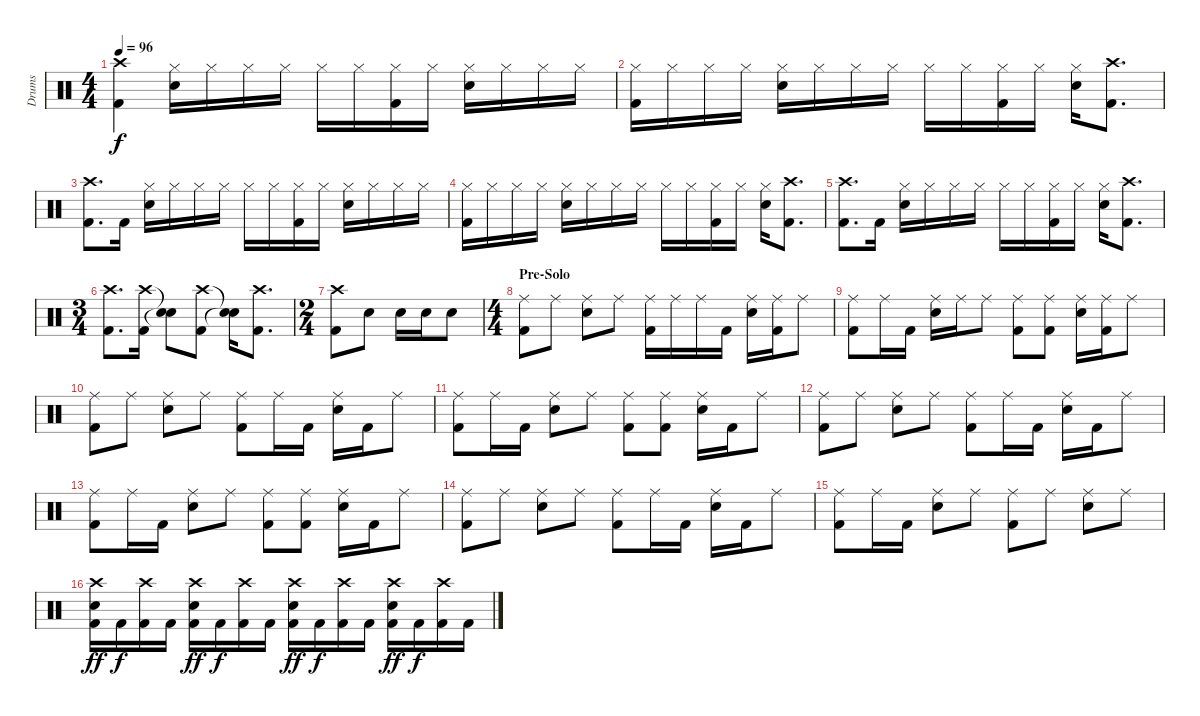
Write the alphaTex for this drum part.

\track ("Drums" "Drums") {instrument percussion}
\staff {score}
\articulation defaults
\ts (4 4)
\tempo 96
\clef neutral
\ks c
("Crash high (hit)" "Kick (hit) 2").4{dy f} ("Hi-Hat (closed)" "Electric Snare (hit)").16 "Hi-Hat (closed)".16 "Hi-Hat (closed)".16 "Hi-Hat (closed)".16 "Hi-Hat (closed)".16 "Hi-Hat (closed)".16 ("Hi-Hat (closed)" "Kick (hit) 2").16 "Hi-Hat (closed)".16 ("Hi-Hat (closed)" "Electric Snare (hit)").16 "Hi-Hat (closed)".16 "Hi-Hat (closed)".16 "Hi-Hat (closed)".16 |
("Hi-Hat (closed)" "Kick (hit) 2").16 "Hi-Hat (closed)".16 "Hi-Hat (closed)".16 "Hi-Hat (closed)".16 ("Hi-Hat (closed)" "Electric Snare (hit)").16 "Hi-Hat (closed)".16 "Hi-Hat (closed)".16 "Hi-Hat (closed)".16 "Hi-Hat (closed)".16 "Hi-Hat (closed)".16 ("Hi-Hat (closed)" "Kick (hit) 2").16 "Hi-Hat (closed)".16 ("Hi-Hat (closed)" "Electric Snare (hit)").16 ("Crash high (hit)" "Kick (hit) 2").8{d} |
("Crash high (hit)" "Kick (hit) 2").8{d} "Kick (hit) 2".16 ("Hi-Hat (closed)" "Electric Snare (hit)").16 "Hi-Hat (closed)".16 "Hi-Hat (closed)".16 "Hi-Hat (closed)".16 "Hi-Hat (closed)".16 "Hi-Hat (closed)".16 ("Hi-Hat (closed)" "Kick (hit) 2").16 "Hi-Hat (closed)".16 ("Hi-Hat (closed)" "Electric Snare (hit)").16 "Hi-Hat (closed)".16 "Hi-Hat (closed)".16 "Hi-Hat (closed)".16 |
("Hi-Hat (closed)" "Kick (hit) 2").16 "Hi-Hat (closed)".16 "Hi-Hat (closed)".16 "Hi-Hat (closed)".16 ("Hi-Hat (closed)" "Electric Snare (hit)").16 "Hi-Hat (closed)".16 "Hi-Hat (closed)".16 "Hi-Hat (closed)".16 "Hi-Hat (closed)".16 "Hi-Hat (closed)".16 ("Hi-Hat (closed)" "Kick (hit) 2").16 "Hi-Hat (closed)".16 ("Hi-Hat (closed)" "Electric Snare (hit)").16 ("Crash high (hit)" "Kick (hit) 2").8{d} |
("Crash high (hit)" "Kick (hit) 2").8{d} "Kick (hit) 2".16 ("Hi-Hat (closed)" "Electric Snare (hit)").16 "Hi-Hat (closed)".16 "Hi-Hat (closed)".16 "Hi-Hat (closed)".16 "Hi-Hat (closed)".16 "Hi-Hat (closed)".16 ("Hi-Hat (closed)" "Kick (hit) 2").16 "Hi-Hat (closed)".16 ("Hi-Hat (closed)" "Electric Snare (hit)").16 ("Crash high (hit)" "Kick (hit) 2").8{d} |
\ts (3 4)
("Crash high (hit)" "Kick (hit) 2").8{d} ("Crash high (hit)" "Kick (hit) 2").16 ("Snare (hit)"{t} "Snare (hit)"{t}).8 ("Crash high (hit)" "Kick (hit) 2").8 ("Snare (hit)"{t} "Snare (hit)"{t}).16 ("Crash high (hit)" "Kick (hit) 2").8{d} |
\ts (2 4)
("Crash high (hit)" "Kick (hit) 2").8 "Electric Snare (hit)".8 "Electric Snare (hit)".16 "Electric Snare (hit)".16 "Electric Snare (hit)".8 |
\ts (4 4)
\section ("" "Pre-Solo")
("Ride (middle)" "Kick (hit) 2").8 "Ride (middle)".8 ("Ride (middle)" "Electric Snare (hit)").8 "Ride (middle)".8 ("Ride (middle)" "Kick (hit) 2").16 "Ride (middle)".16 "Ride (middle)".16 "Kick (hit) 2".16 ("Ride (middle)" "Electric Snare (hit)").16 ("Ride (middle)" "Kick (hit) 2").16 "Ride (middle)".8 |
("Ride (middle)" "Kick (hit) 2").8 "Ride (middle)".16 "Kick (hit) 2".16 ("Ride (middle)" "Electric Snare (hit)").16 "Ride (middle)".16 "Ride (middle)".8 ("Ride (middle)" "Kick (hit) 2").8 ("Ride (middle)" "Kick (hit) 2").8 ("Ride (middle)" "Electric Snare (hit)").16 ("Ride (middle)" "Kick (hit) 2").16 "Ride (middle)".8 |
("Ride (middle)" "Kick (hit) 2").8 "Ride (middle)".8 ("Ride (middle)" "Electric Snare (hit)").8 "Ride (middle)".8 ("Ride (middle)" "Kick (hit) 2").8 "Ride (middle)".16 "Kick (hit) 2".16 ("Ride (middle)" "Electric Snare (hit)").16 "Kick (hit) 2".16 "Ride (middle)".8 |
("Ride (middle)" "Kick (hit) 2").8 "Ride (middle)".16 "Kick (hit) 2".16 ("Ride (middle)" "Electric Snare (hit)").8 "Ride (middle)".8 ("Ride (middle)" "Kick (hit) 2").8 ("Ride (middle)" "Kick (hit) 2").8 ("Ride (middle)" "Electric Snare (hit)").16 "Kick (hit) 2".16 "Ride (middle)".8 |
("Ride (middle)" "Kick (hit) 2").8 "Ride (middle)".8 ("Ride (middle)" "Electric Snare (hit)").8 "Ride (middle)".8 ("Ride (middle)" "Kick (hit) 2").8 "Ride (middle)".16 "Kick (hit) 2".16 ("Ride (middle)" "Electric Snare (hit)").16 "Kick (hit) 2".16 "Ride (middle)".8 |
("Ride (middle)" "Kick (hit) 2").8 "Ride (middle)".16 "Kick (hit) 2".16 ("Ride (middle)" "Electric Snare (hit)").8 "Ride (middle)".8 ("Ride (middle)" "Kick (hit) 2").8 ("Ride (middle)" "Kick (hit) 2").8 ("Ride (middle)" "Electric Snare (hit)").16 "Kick (hit) 2".16 "Ride (middle)".8 |
("Ride (middle)" "Kick (hit) 2").8 "Ride (middle)".8 ("Ride (middle)" "Electric Snare (hit)").8 "Ride (middle)".8 ("Ride (middle)" "Kick (hit) 2").8 "Ride (middle)".16 "Kick (hit) 2".16 ("Ride (middle)" "Electric Snare (hit)").16 "Kick (hit) 2".16 "Ride (middle)".8 |
("Ride (middle)" "Kick (hit) 2").8 "Ride (middle)".16 "Kick (hit) 2".16 ("Ride (middle)" "Electric Snare (hit)").8 "Ride (middle)".8 ("Ride (middle)" "Kick (hit) 2").8 "Ride (middle)".8 ("Ride (middle)" "Electric Snare (hit)").8 "Ride (middle)".8 |
("Crash high (hit)" "Electric Snare (hit)" "Kick (hit) 2").16{dy ff} "Kick (hit) 2".16{dy f} ("Crash high (hit)" "Kick (hit) 2").16 "Kick (hit) 2".16 ("Crash high (hit)" "Electric Snare (hit)" "Kick (hit) 2").16{dy ff} "Kick (hit) 2".16{dy f} ("Crash high (hit)" "Kick (hit) 2").16 "Kick (hit) 2".16 ("Crash high (hit)" "Electric Snare (hit)" "Kick (hit) 2").16{dy ff} "Kick (hit) 2".16{dy f} ("Crash high (hit)" "Kick (hit) 2").16 "Kick (hit) 2".16 ("Crash high (hit)" "Electric Snare (hit)" "Kick (hit) 2").16{dy ff} "Kick (hit) 2".16{dy f} ("Crash high (hit)" "Kick (hit) 2").16 "Kick (hit) 2".16
